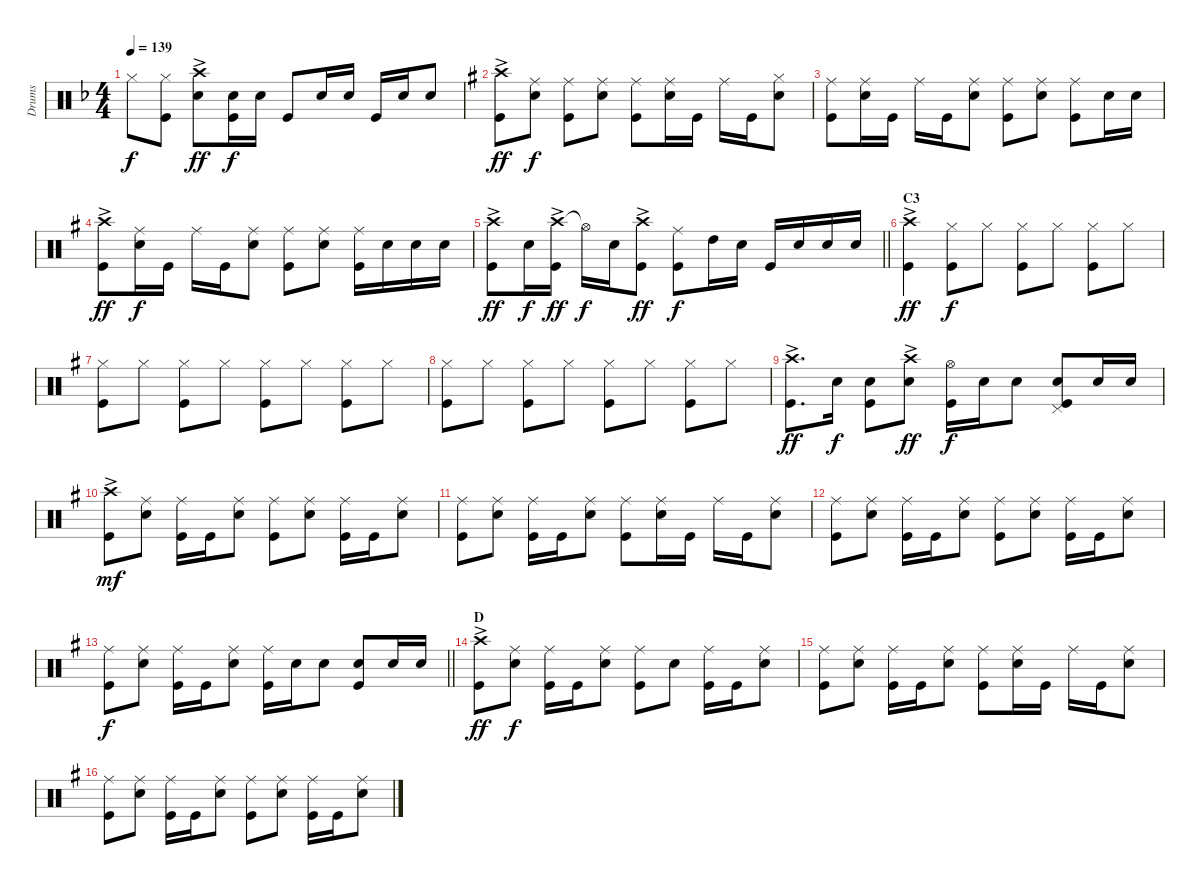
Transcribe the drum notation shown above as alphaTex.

\track ("Drums" "Drums") {instrument percussion}
\staff {score}
\articulation defaults
\ts (4 4)
\tempo 139
\clef neutral
\ks f "Hi-Hat (closed)".8{dy f}
("Hi-Hat (closed)" "Kick (hit)").8 ("Crash high (hit)"{ac} "Snare (hit) 2").8{dy ff} ("Snare (hit) 2" "Kick (hit)").16{dy f} "Snare (hit) 2".16 "Kick (hit)".8 "Snare (hit) 2".16 "Snare (hit) 2".16 "Kick (hit)".16 "Snare (hit) 2".16 "Snare (hit) 2".8 |
\ks g
("Crash high (hit)"{ac} "Kick (hit)").8{dy ff} ("Ride (middle)" "Snare (hit) 2").8{dy f} ("Ride (middle)" "Kick (hit)").8 ("Ride (middle)" "Snare (hit) 2").8 ("Ride (middle)" "Kick (hit)").8 ("Ride (middle)" "Snare (hit) 2").16 "Kick (hit)".16 "Ride (middle)".16 "Kick (hit)".16 ("Hi-Hat (closed)" "Snare (hit) 2").8 |
("Ride (middle)" "Kick (hit)").8 ("Ride (middle)" "Snare (hit) 2").16 "Kick (hit)".16 "Ride (middle)".16 "Kick (hit)".16 ("Ride (middle)" "Snare (hit) 2").8 ("Ride (middle)" "Kick (hit)").8 ("Ride (middle)" "Snare (hit) 2").8 ("Ride (middle)" "Kick (hit)").8 "Snare (hit) 2".16 "Snare (hit) 2".16 |
("Crash high (hit)"{ac} "Kick (hit)").8{dy ff} ("Ride (middle)" "Snare (hit) 2").16{dy f} "Kick (hit)".16 "Ride (middle)".16 "Kick (hit)".16 ("Ride (middle)" "Snare (hit) 2").8 ("Ride (middle)" "Kick (hit)").8 ("Ride (middle)" "Snare (hit) 2").8 ("Ride (middle)" "Kick (hit)").16 "Snare (hit) 2".16 "Snare (hit) 2".16 "Snare (hit) 2".16 |
\barLineRight lightlight
("Crash high (hit)"{ac} "Kick (hit)").8{dy ff} "Snare (hit) 2".16{dy f} ("Crash high (hit)"{ac} "Kick (hit)").16{dy ff} "Hi-Hat (open)"{t}.16{dy f} "Snare (hit) 2".16 ("Crash high (hit)"{ac} "Kick (hit)").8{dy ff} ("Ride (middle)" "Kick (hit)").8{dy f} "High Tom (hit)".16 "Snare (hit) 2".16 "Kick (hit)".16 "Snare (hit) 2".16 "Snare (hit) 2".16 "Snare (hit) 2".16 |
\section ("" "C3")
("Crash high (hit)"{ac} "Kick (hit)").4{dy ff} ("Hi-Hat (closed)" "Kick (hit)").8{dy f} "Hi-Hat (closed)".8 ("Hi-Hat (closed)" "Kick (hit)").8 "Hi-Hat (closed)".8 ("Hi-Hat (closed)" "Kick (hit)").8 "Hi-Hat (closed)".8 |
("Hi-Hat (closed)" "Kick (hit)").8 "Hi-Hat (closed)".8 ("Hi-Hat (closed)" "Kick (hit)").8 "Hi-Hat (closed)".8 ("Hi-Hat (closed)" "Kick (hit)").8 "Hi-Hat (closed)".8 ("Hi-Hat (closed)" "Kick (hit)").8 "Hi-Hat (closed)".8 |
("Hi-Hat (closed)" "Kick (hit)").8 "Hi-Hat (closed)".8 ("Hi-Hat (closed)" "Kick (hit)").8 "Hi-Hat (closed)".8 ("Hi-Hat (closed)" "Kick (hit)").8 "Hi-Hat (closed)".8 ("Hi-Hat (closed)" "Kick (hit)").8 "Hi-Hat (closed)".8 |
("Crash high (hit)"{ac} "Kick (hit)").8{d dy ff} "Snare (hit) 2".16{dy f} ("Snare (hit) 2" "Kick (hit)").8 ("Crash high (hit)"{ac} "Snare (hit) 2").8{dy ff} ("Hi-Hat (open)" "Kick (hit)").16{dy f} "Snare (hit) 2".16 "Snare (hit) 2".8 ("Snare (hit) 2" "Kick (hit)" "Pedal Hi-Hat (hit)").8 "Snare (hit) 2".16 "Snare (hit) 2".16 |
("Crash high (hit)"{ac} "Kick (hit)").8{dy mf} ("Ride (middle)" "Snare (hit) 2").8 ("Ride (middle)" "Kick (hit)").16 "Kick (hit)".16 ("Ride (middle)" "Snare (hit) 2").8 ("Ride (middle)" "Kick (hit)").8 ("Ride (middle)" "Snare (hit) 2").8 ("Ride (middle)" "Kick (hit)").16 "Kick (hit)".16 ("Ride (middle)" "Snare (hit) 2").8 |
("Ride (middle)" "Kick (hit)").8 ("Ride (middle)" "Snare (hit) 2").8 ("Ride (middle)" "Kick (hit)").16 "Kick (hit)".16 ("Ride (middle)" "Snare (hit) 2").8 ("Ride (middle)" "Kick (hit)").8 ("Ride (middle)" "Snare (hit) 2").16 "Kick (hit)".16 "Ride (middle)".16 "Kick (hit)".16 ("Ride (middle)" "Snare (hit) 2").8 |
("Ride (middle)" "Kick (hit)").8 ("Ride (middle)" "Snare (hit) 2").8 ("Ride (middle)" "Kick (hit)").16 "Kick (hit)".16 ("Ride (middle)" "Snare (hit) 2").8 ("Ride (middle)" "Kick (hit)").8 ("Ride (middle)" "Snare (hit) 2").8 ("Ride (middle)" "Kick (hit)").16 "Kick (hit)".16 ("Ride (middle)" "Snare (hit) 2").8 |
\barLineRight lightlight
("Ride (middle)" "Kick (hit)").8{dy f} ("Ride (middle)" "Snare (hit) 2").8 ("Ride (middle)" "Kick (hit)").16 "Kick (hit)".16 ("Ride (middle)" "Snare (hit) 2").8 ("Ride (middle)" "Kick (hit)").16 "Snare (hit) 2".16 "Snare (hit) 2".8 ("Snare (hit) 2" "Kick (hit)").8 "Snare (hit) 2".16 "Snare (hit) 2".16 |
\section ("" "D")
("Crash high (hit)"{ac} "Kick (hit)").8{dy ff} ("Ride (middle)" "Snare (hit) 2").8{dy f} ("Ride (middle)" "Kick (hit)").16 "Kick (hit)".16 ("Ride (middle)" "Snare (hit) 2").8 ("Ride (middle)" "Kick (hit)").8 "Snare (hit) 2".8 ("Ride (middle)" "Kick (hit)").16 "Kick (hit)".16 ("Ride (middle)" "Snare (hit) 2").8 |
("Ride (middle)" "Kick (hit)").8 ("Ride (middle)" "Snare (hit) 2").8 ("Ride (middle)" "Kick (hit)").16 "Kick (hit)".16 ("Ride (middle)" "Snare (hit) 2").8 ("Ride (middle)" "Kick (hit)").8 ("Ride (middle)" "Snare (hit) 2").16 "Kick (hit)".16 "Ride (middle)".16 "Kick (hit)".16 ("Ride (middle)" "Snare (hit) 2").8 |
("Ride (middle)" "Kick (hit)").8 ("Ride (middle)" "Snare (hit) 2").8 ("Ride (middle)" "Kick (hit)").16 "Kick (hit)".16 ("Ride (middle)" "Snare (hit) 2").8 ("Ride (middle)" "Kick (hit)").8 ("Ride (middle)" "Snare (hit) 2").8 ("Ride (middle)" "Kick (hit)").16 "Kick (hit)".16 ("Ride (middle)" "Snare (hit) 2").8
